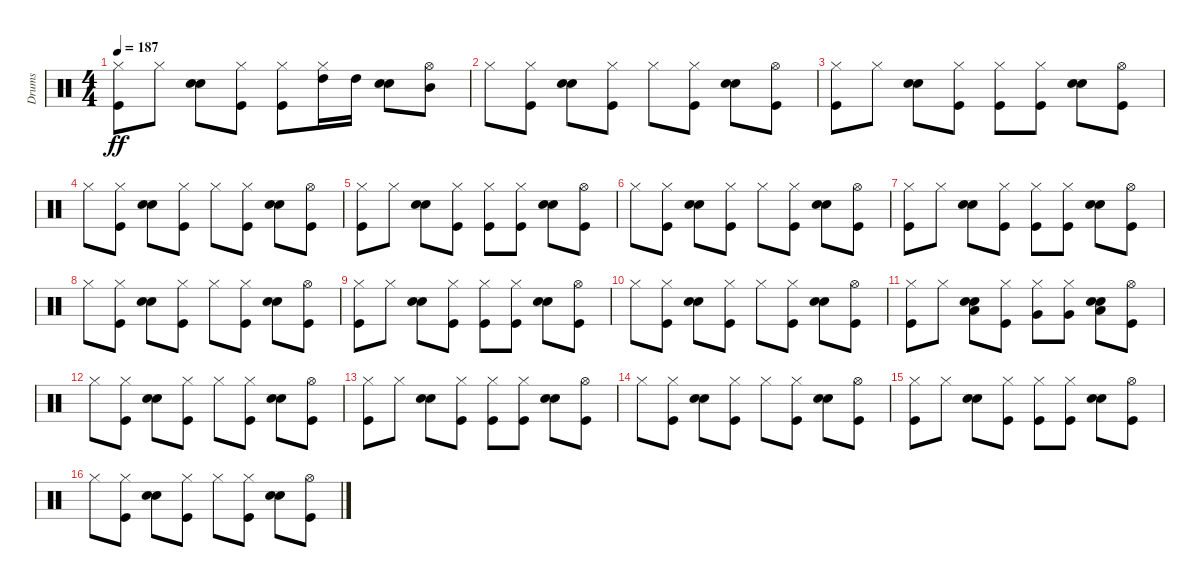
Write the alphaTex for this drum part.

\track ("Drums" "Drums") {instrument percussion}
\staff {score}
\articulation defaults
\ts (4 4)
\tempo 187
\clef neutral
\ks c
("Kick (hit)" "Hi-Hat (closed)").8{dy ff} "Hi-Hat (closed)".8 ("Snare (hit) 2" "Electric Snare (hit)").8 ("Kick (hit)" "Hi-Hat (closed)").8 ("Kick (hit)" "Hi-Hat (closed)").8 ("Hi-Hat (closed)" "High Tom (hit)").16 "High Tom (hit)".16 ("Snare (hit) 2" "Electric Snare (hit)").8 ("Hi-Hat (open)" "Mid Tom (hit)").8 |
"Hi-Hat (closed)".8 ("Kick (hit)" "Hi-Hat (closed)").8 ("Snare (hit) 2" "Electric Snare (hit)").8 ("Kick (hit)" "Hi-Hat (closed)").8 "Hi-Hat (closed)".8 ("Kick (hit)" "Hi-Hat (closed)").8 ("Snare (hit) 2" "Electric Snare (hit)").8 ("Kick (hit)" "Hi-Hat (open)").8 |
("Kick (hit)" "Hi-Hat (closed)").8 "Hi-Hat (closed)".8 ("Snare (hit) 2" "Electric Snare (hit)").8 ("Kick (hit)" "Hi-Hat (closed)").8 ("Kick (hit)" "Hi-Hat (closed)").8 ("Kick (hit)" "Hi-Hat (closed)").8 ("Snare (hit) 2" "Electric Snare (hit)").8 ("Kick (hit)" "Hi-Hat (open)").8 |
"Hi-Hat (closed)".8 ("Kick (hit)" "Hi-Hat (closed)").8 ("Snare (hit) 2" "Electric Snare (hit)").8 ("Kick (hit)" "Hi-Hat (closed)").8 "Hi-Hat (closed)".8 ("Kick (hit)" "Hi-Hat (closed)").8 ("Snare (hit) 2" "Electric Snare (hit)").8 ("Kick (hit)" "Hi-Hat (open)").8 |
("Kick (hit)" "Hi-Hat (closed)").8 "Hi-Hat (closed)".8 ("Snare (hit) 2" "Electric Snare (hit)").8 ("Kick (hit)" "Hi-Hat (closed)").8 ("Kick (hit)" "Hi-Hat (closed)").8 ("Kick (hit)" "Hi-Hat (closed)").8 ("Snare (hit) 2" "Electric Snare (hit)").8 ("Kick (hit)" "Hi-Hat (open)").8 |
"Hi-Hat (closed)".8 ("Kick (hit)" "Hi-Hat (closed)").8 ("Snare (hit) 2" "Electric Snare (hit)").8 ("Kick (hit)" "Hi-Hat (closed)").8 "Hi-Hat (closed)".8 ("Kick (hit)" "Hi-Hat (closed)").8 ("Snare (hit) 2" "Electric Snare (hit)").8 ("Kick (hit)" "Hi-Hat (open)").8 |
("Kick (hit)" "Hi-Hat (closed)").8 "Hi-Hat (closed)".8 ("Snare (hit) 2" "Electric Snare (hit)").8 ("Kick (hit)" "Hi-Hat (closed)").8 ("Kick (hit)" "Hi-Hat (closed)").8 ("Kick (hit)" "Hi-Hat (closed)").8 ("Snare (hit) 2" "Electric Snare (hit)").8 ("Kick (hit)" "Hi-Hat (open)").8 |
"Hi-Hat (closed)".8 ("Kick (hit)" "Hi-Hat (closed)").8 ("Snare (hit) 2" "Electric Snare (hit)").8 ("Kick (hit)" "Hi-Hat (closed)").8 "Hi-Hat (closed)".8 ("Kick (hit)" "Hi-Hat (closed)").8 ("Snare (hit) 2" "Electric Snare (hit)").8 ("Kick (hit)" "Hi-Hat (open)").8 |
("Kick (hit)" "Hi-Hat (closed)").8 "Hi-Hat (closed)".8 ("Snare (hit) 2" "Electric Snare (hit)").8 ("Kick (hit)" "Hi-Hat (closed)").8 ("Kick (hit)" "Hi-Hat (closed)").8 ("Kick (hit)" "Hi-Hat (closed)").8 ("Snare (hit) 2" "Electric Snare (hit)").8 ("Kick (hit)" "Hi-Hat (open)").8 |
"Hi-Hat (closed)".8 ("Kick (hit)" "Hi-Hat (closed)").8 ("Snare (hit) 2" "Electric Snare (hit)").8 ("Kick (hit)" "Hi-Hat (closed)").8 "Hi-Hat (closed)".8 ("Kick (hit)" "Hi-Hat (closed)").8 ("Snare (hit) 2" "Electric Snare (hit)").8 ("Kick (hit)" "Hi-Hat (open)").8 |
("Kick (hit)" "Hi-Hat (closed)").8 "Hi-Hat (closed)".8 ("Snare (hit) 2" "Electric Snare (hit)" "Low Tom (hit)").8 ("Kick (hit)" "Hi-Hat (closed)").8 ("Hi-Hat (closed)" "Very Low Tom (hit)").8 ("Hi-Hat (closed)" "Very Low Tom (hit)").8 ("Snare (hit) 2" "Electric Snare (hit)" "Low Tom (hit)").8 ("Kick (hit)" "Hi-Hat (open)").8 |
"Hi-Hat (closed)".8 ("Kick (hit)" "Hi-Hat (closed)").8 ("Snare (hit) 2" "Electric Snare (hit)").8 ("Kick (hit)" "Hi-Hat (closed)").8 "Hi-Hat (closed)".8 ("Kick (hit)" "Hi-Hat (closed)").8 ("Snare (hit) 2" "Electric Snare (hit)").8 ("Kick (hit)" "Hi-Hat (open)").8 |
("Kick (hit)" "Hi-Hat (closed)").8 "Hi-Hat (closed)".8 ("Snare (hit) 2" "Electric Snare (hit)").8 ("Kick (hit)" "Hi-Hat (closed)").8 ("Kick (hit)" "Hi-Hat (closed)").8 ("Kick (hit)" "Hi-Hat (closed)").8 ("Snare (hit) 2" "Electric Snare (hit)").8 ("Kick (hit)" "Hi-Hat (open)").8 |
"Hi-Hat (closed)".8 ("Kick (hit)" "Hi-Hat (closed)").8 ("Snare (hit) 2" "Electric Snare (hit)").8 ("Kick (hit)" "Hi-Hat (closed)").8 "Hi-Hat (closed)".8 ("Kick (hit)" "Hi-Hat (closed)").8 ("Snare (hit) 2" "Electric Snare (hit)").8 ("Kick (hit)" "Hi-Hat (open)").8 |
("Kick (hit)" "Hi-Hat (closed)").8 "Hi-Hat (closed)".8 ("Snare (hit) 2" "Electric Snare (hit)").8 ("Kick (hit)" "Hi-Hat (closed)").8 ("Kick (hit)" "Hi-Hat (closed)").8 ("Kick (hit)" "Hi-Hat (closed)").8 ("Snare (hit) 2" "Electric Snare (hit)").8 ("Kick (hit)" "Hi-Hat (open)").8 |
"Hi-Hat (closed)".8 ("Kick (hit)" "Hi-Hat (closed)").8 ("Snare (hit) 2" "Electric Snare (hit)").8 ("Kick (hit)" "Hi-Hat (closed)").8 "Hi-Hat (closed)".8 ("Kick (hit)" "Hi-Hat (closed)").8 ("Snare (hit) 2" "Electric Snare (hit)").8 ("Kick (hit)" "Hi-Hat (open)").8
